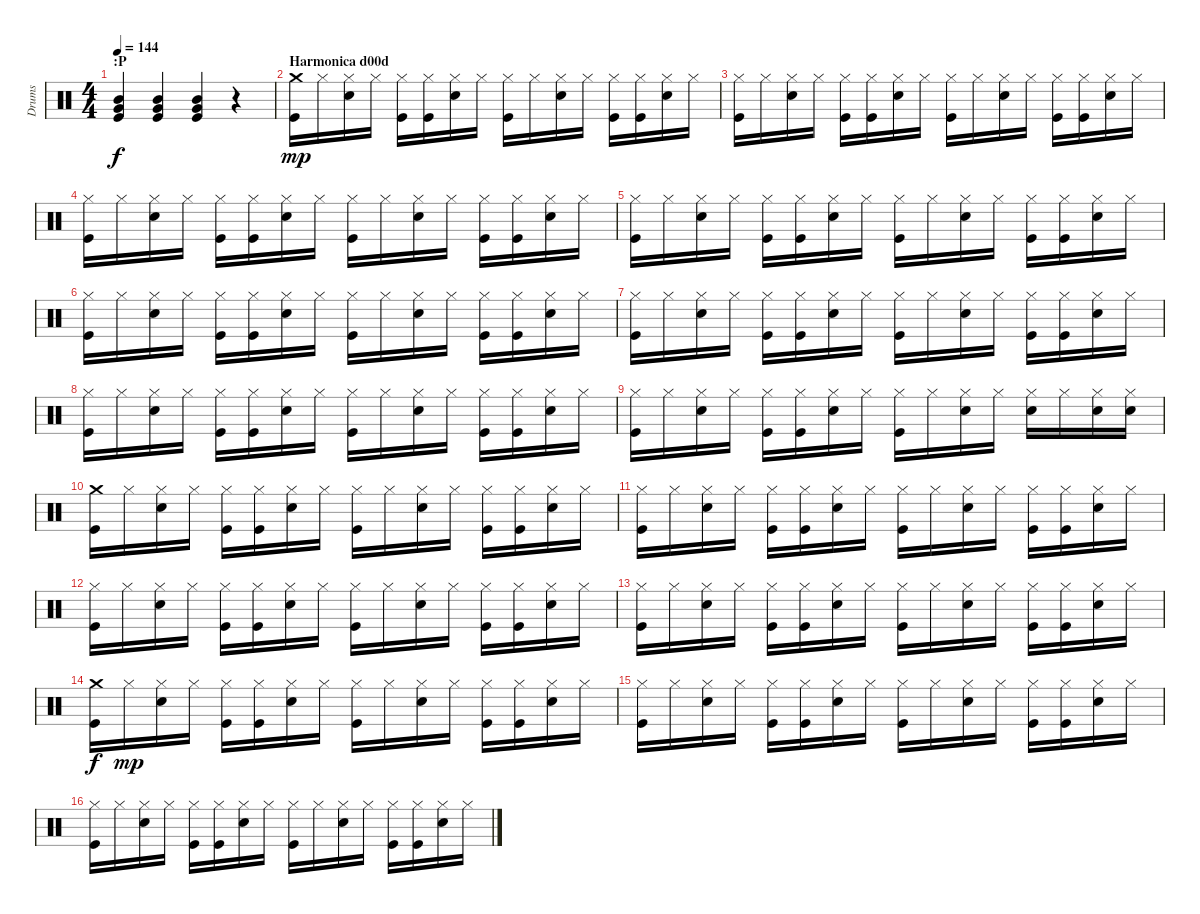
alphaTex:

\track ("Drums" "Drums") {instrument percussion}
\staff {score}
\articulation defaults
\ts (4 4)
\section ("" ":P")
\tempo 144
\clef neutral
\ks c
("Mid Tom (hit)" "Very Low Tom (hit)" "Kick (hit)").4{dy f} ("Mid Tom (hit)" "Very Low Tom (hit)" "Kick (hit)").4 ("Mid Tom (hit)" "Very Low Tom (hit)" "Kick (hit)").4 r.4 |
\section ("" "Harmonica d00d")
("Crash medium (hit)" "Kick (hit)").16{dy mp} "Hi-Hat (closed)".16 ("Hi-Hat (closed)" "Electric Snare (hit)").16 "Hi-Hat (closed)".16 ("Hi-Hat (closed)" "Kick (hit)").16 ("Hi-Hat (closed)" "Kick (hit)").16 ("Hi-Hat (closed)" "Electric Snare (hit)").16 "Hi-Hat (closed)".16 ("Hi-Hat (closed)" "Kick (hit)").16 "Hi-Hat (closed)".16 ("Hi-Hat (closed)" "Electric Snare (hit)").16 "Hi-Hat (closed)".16 ("Hi-Hat (closed)" "Kick (hit)").16 ("Hi-Hat (closed)" "Kick (hit)").16 ("Hi-Hat (closed)" "Electric Snare (hit)").16 "Hi-Hat (closed)".16 |
("Hi-Hat (closed)" "Kick (hit)").16 "Hi-Hat (closed)".16 ("Hi-Hat (closed)" "Electric Snare (hit)").16 "Hi-Hat (closed)".16 ("Hi-Hat (closed)" "Kick (hit)").16 ("Hi-Hat (closed)" "Kick (hit)").16 ("Hi-Hat (closed)" "Electric Snare (hit)").16 "Hi-Hat (closed)".16 ("Hi-Hat (closed)" "Kick (hit)").16 "Hi-Hat (closed)".16 ("Hi-Hat (closed)" "Electric Snare (hit)").16 "Hi-Hat (closed)".16 ("Hi-Hat (closed)" "Kick (hit)").16 ("Hi-Hat (closed)" "Kick (hit)").16 ("Hi-Hat (closed)" "Electric Snare (hit)").16 "Hi-Hat (closed)".16 |
("Hi-Hat (closed)" "Kick (hit)").16 "Hi-Hat (closed)".16 ("Hi-Hat (closed)" "Electric Snare (hit)").16 "Hi-Hat (closed)".16 ("Hi-Hat (closed)" "Kick (hit)").16 ("Hi-Hat (closed)" "Kick (hit)").16 ("Hi-Hat (closed)" "Electric Snare (hit)").16 "Hi-Hat (closed)".16 ("Hi-Hat (closed)" "Kick (hit)").16 "Hi-Hat (closed)".16 ("Hi-Hat (closed)" "Electric Snare (hit)").16 "Hi-Hat (closed)".16 ("Hi-Hat (closed)" "Kick (hit)").16 ("Hi-Hat (closed)" "Kick (hit)").16 ("Hi-Hat (closed)" "Electric Snare (hit)").16 "Hi-Hat (closed)".16 |
("Hi-Hat (closed)" "Kick (hit)").16 "Hi-Hat (closed)".16 ("Hi-Hat (closed)" "Electric Snare (hit)").16 "Hi-Hat (closed)".16 ("Hi-Hat (closed)" "Kick (hit)").16 ("Hi-Hat (closed)" "Kick (hit)").16 ("Hi-Hat (closed)" "Electric Snare (hit)").16 "Hi-Hat (closed)".16 ("Hi-Hat (closed)" "Kick (hit)").16 "Hi-Hat (closed)".16 ("Hi-Hat (closed)" "Electric Snare (hit)").16 "Hi-Hat (closed)".16 ("Hi-Hat (closed)" "Kick (hit)").16 ("Hi-Hat (closed)" "Kick (hit)").16 ("Hi-Hat (closed)" "Electric Snare (hit)").16 "Hi-Hat (closed)".16 |
("Hi-Hat (closed)" "Kick (hit)").16 "Hi-Hat (closed)".16 ("Hi-Hat (closed)" "Electric Snare (hit)").16 "Hi-Hat (closed)".16 ("Hi-Hat (closed)" "Kick (hit)").16 ("Hi-Hat (closed)" "Kick (hit)").16 ("Hi-Hat (closed)" "Electric Snare (hit)").16 "Hi-Hat (closed)".16 ("Hi-Hat (closed)" "Kick (hit)").16 "Hi-Hat (closed)".16 ("Hi-Hat (closed)" "Electric Snare (hit)").16 "Hi-Hat (closed)".16 ("Hi-Hat (closed)" "Kick (hit)").16 ("Hi-Hat (closed)" "Kick (hit)").16 ("Hi-Hat (closed)" "Electric Snare (hit)").16 "Hi-Hat (closed)".16 |
("Hi-Hat (closed)" "Kick (hit)").16 "Hi-Hat (closed)".16 ("Hi-Hat (closed)" "Electric Snare (hit)").16 "Hi-Hat (closed)".16 ("Hi-Hat (closed)" "Kick (hit)").16 ("Hi-Hat (closed)" "Kick (hit)").16 ("Hi-Hat (closed)" "Electric Snare (hit)").16 "Hi-Hat (closed)".16 ("Hi-Hat (closed)" "Kick (hit)").16 "Hi-Hat (closed)".16 ("Hi-Hat (closed)" "Electric Snare (hit)").16 "Hi-Hat (closed)".16 ("Hi-Hat (closed)" "Kick (hit)").16 ("Hi-Hat (closed)" "Kick (hit)").16 ("Hi-Hat (closed)" "Electric Snare (hit)").16 "Hi-Hat (closed)".16 |
("Hi-Hat (closed)" "Kick (hit)").16 "Hi-Hat (closed)".16 ("Hi-Hat (closed)" "Electric Snare (hit)").16 "Hi-Hat (closed)".16 ("Hi-Hat (closed)" "Kick (hit)").16 ("Hi-Hat (closed)" "Kick (hit)").16 ("Hi-Hat (closed)" "Electric Snare (hit)").16 "Hi-Hat (closed)".16 ("Hi-Hat (closed)" "Kick (hit)").16 "Hi-Hat (closed)".16 ("Hi-Hat (closed)" "Electric Snare (hit)").16 "Hi-Hat (closed)".16 ("Hi-Hat (closed)" "Kick (hit)").16 ("Hi-Hat (closed)" "Kick (hit)").16 ("Hi-Hat (closed)" "Electric Snare (hit)").16 "Hi-Hat (closed)".16 |
("Hi-Hat (closed)" "Kick (hit)").16 "Hi-Hat (closed)".16 ("Hi-Hat (closed)" "Electric Snare (hit)").16 "Hi-Hat (closed)".16 ("Hi-Hat (closed)" "Kick (hit)").16 ("Hi-Hat (closed)" "Kick (hit)").16 ("Hi-Hat (closed)" "Electric Snare (hit)").16 "Hi-Hat (closed)".16 ("Hi-Hat (closed)" "Kick (hit)").16 "Hi-Hat (closed)".16 ("Hi-Hat (closed)" "Electric Snare (hit)").16 "Hi-Hat (closed)".16 ("Hi-Hat (closed)" "Electric Snare (hit)").16 "Hi-Hat (closed)".16 ("Hi-Hat (closed)" "Electric Snare (hit)").16 ("Hi-Hat (closed)" "Electric Snare (hit)").16 |
("Crash medium (hit)" "Kick (hit)").16 "Hi-Hat (closed)".16 ("Hi-Hat (closed)" "Electric Snare (hit)").16 "Hi-Hat (closed)".16 ("Hi-Hat (closed)" "Kick (hit)").16 ("Hi-Hat (closed)" "Kick (hit)").16 ("Hi-Hat (closed)" "Electric Snare (hit)").16 "Hi-Hat (closed)".16 ("Hi-Hat (closed)" "Kick (hit)").16 "Hi-Hat (closed)".16 ("Hi-Hat (closed)" "Electric Snare (hit)").16 "Hi-Hat (closed)".16 ("Hi-Hat (closed)" "Kick (hit)").16 ("Hi-Hat (closed)" "Kick (hit)").16 ("Hi-Hat (closed)" "Electric Snare (hit)").16 "Hi-Hat (closed)".16 |
("Hi-Hat (closed)" "Kick (hit)").16 "Hi-Hat (closed)".16 ("Hi-Hat (closed)" "Electric Snare (hit)").16 "Hi-Hat (closed)".16 ("Hi-Hat (closed)" "Kick (hit)").16 ("Hi-Hat (closed)" "Kick (hit)").16 ("Hi-Hat (closed)" "Electric Snare (hit)").16 "Hi-Hat (closed)".16 ("Hi-Hat (closed)" "Kick (hit)").16 "Hi-Hat (closed)".16 ("Hi-Hat (closed)" "Electric Snare (hit)").16 "Hi-Hat (closed)".16 ("Hi-Hat (closed)" "Kick (hit)").16 ("Hi-Hat (closed)" "Kick (hit)").16 ("Hi-Hat (closed)" "Electric Snare (hit)").16 "Hi-Hat (closed)".16 |
("Hi-Hat (closed)" "Kick (hit)").16 "Hi-Hat (closed)".16 ("Hi-Hat (closed)" "Electric Snare (hit)").16 "Hi-Hat (closed)".16 ("Hi-Hat (closed)" "Kick (hit)").16 ("Hi-Hat (closed)" "Kick (hit)").16 ("Hi-Hat (closed)" "Electric Snare (hit)").16 "Hi-Hat (closed)".16 ("Hi-Hat (closed)" "Kick (hit)").16 "Hi-Hat (closed)".16 ("Hi-Hat (closed)" "Electric Snare (hit)").16 "Hi-Hat (closed)".16 ("Hi-Hat (closed)" "Kick (hit)").16 ("Hi-Hat (closed)" "Kick (hit)").16 ("Hi-Hat (closed)" "Electric Snare (hit)").16 "Hi-Hat (closed)".16 |
("Hi-Hat (closed)" "Kick (hit)").16 "Hi-Hat (closed)".16 ("Hi-Hat (closed)" "Electric Snare (hit)").16 "Hi-Hat (closed)".16 ("Hi-Hat (closed)" "Kick (hit)").16 ("Hi-Hat (closed)" "Kick (hit)").16 ("Hi-Hat (closed)" "Electric Snare (hit)").16 "Hi-Hat (closed)".16 ("Hi-Hat (closed)" "Kick (hit)").16 "Hi-Hat (closed)".16 ("Hi-Hat (closed)" "Electric Snare (hit)").16 "Hi-Hat (closed)".16 ("Hi-Hat (closed)" "Kick (hit)").16 ("Hi-Hat (closed)" "Kick (hit)").16 ("Hi-Hat (closed)" "Electric Snare (hit)").16 "Hi-Hat (closed)".16 |
("Crash medium (hit)" "Kick (hit)").16{dy f} "Hi-Hat (closed)".16{dy mp} ("Hi-Hat (closed)" "Electric Snare (hit)").16 "Hi-Hat (closed)".16 ("Hi-Hat (closed)" "Kick (hit)").16 ("Hi-Hat (closed)" "Kick (hit)").16 ("Hi-Hat (closed)" "Electric Snare (hit)").16 "Hi-Hat (closed)".16 ("Hi-Hat (closed)" "Kick (hit)").16 "Hi-Hat (closed)".16 ("Hi-Hat (closed)" "Electric Snare (hit)").16 "Hi-Hat (closed)".16 ("Hi-Hat (closed)" "Kick (hit)").16 ("Hi-Hat (closed)" "Kick (hit)").16 ("Hi-Hat (closed)" "Electric Snare (hit)").16 "Hi-Hat (closed)".16 |
("Hi-Hat (closed)" "Kick (hit)").16 "Hi-Hat (closed)".16 ("Hi-Hat (closed)" "Electric Snare (hit)").16 "Hi-Hat (closed)".16 ("Hi-Hat (closed)" "Kick (hit)").16 ("Hi-Hat (closed)" "Kick (hit)").16 ("Hi-Hat (closed)" "Electric Snare (hit)").16 "Hi-Hat (closed)".16 ("Hi-Hat (closed)" "Kick (hit)").16 "Hi-Hat (closed)".16 ("Hi-Hat (closed)" "Electric Snare (hit)").16 "Hi-Hat (closed)".16 ("Hi-Hat (closed)" "Kick (hit)").16 ("Hi-Hat (closed)" "Kick (hit)").16 ("Hi-Hat (closed)" "Electric Snare (hit)").16 "Hi-Hat (closed)".16 |
("Hi-Hat (closed)" "Kick (hit)").16 "Hi-Hat (closed)".16 ("Hi-Hat (closed)" "Electric Snare (hit)").16 "Hi-Hat (closed)".16 ("Hi-Hat (closed)" "Kick (hit)").16 ("Hi-Hat (closed)" "Kick (hit)").16 ("Hi-Hat (closed)" "Electric Snare (hit)").16 "Hi-Hat (closed)".16 ("Hi-Hat (closed)" "Kick (hit)").16 "Hi-Hat (closed)".16 ("Hi-Hat (closed)" "Electric Snare (hit)").16 "Hi-Hat (closed)".16 ("Hi-Hat (closed)" "Kick (hit)").16 ("Hi-Hat (closed)" "Kick (hit)").16 ("Hi-Hat (closed)" "Electric Snare (hit)").16 "Hi-Hat (closed)".16
